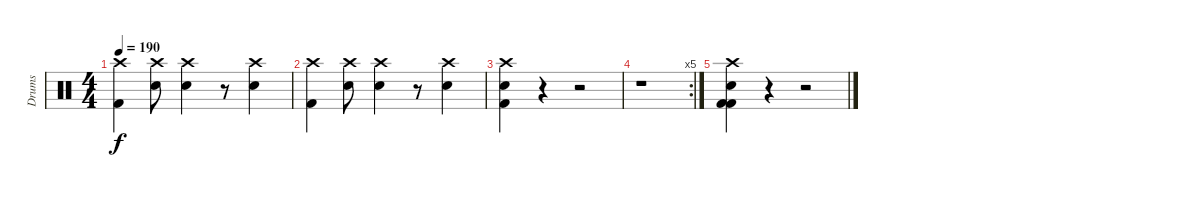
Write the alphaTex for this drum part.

\track ("Drums" "Drums") {instrument percussion}
\staff {score}
\articulation defaults
\ts (4 4)
\tempo 190
\clef neutral
\ks c
("Crash high (hit)" "Kick (hit) 2").4{dy f} ("Crash high (hit)" "Snare (hit) 2").8 ("Crash high (hit)" "Snare (hit) 2").4 r.8 ("Crash high (hit)" "Snare (hit) 2").4 |
("Crash high (hit)" "Kick (hit) 2").4 ("Crash high (hit)" "Snare (hit) 2").8 ("Crash high (hit)" "Snare (hit) 2").4 r.8 ("Crash high (hit)" "Snare (hit) 2").4 |
("Crash high (hit)" "Snare (hit) 2" "Kick (hit) 2").4 r.4 r.2 |
\rc 5
r.1 |
("Crash high (hit)" "Snare (hit) 2" "Kick (hit) 2" "Kick (hit) 2").4 r.4 r.2
